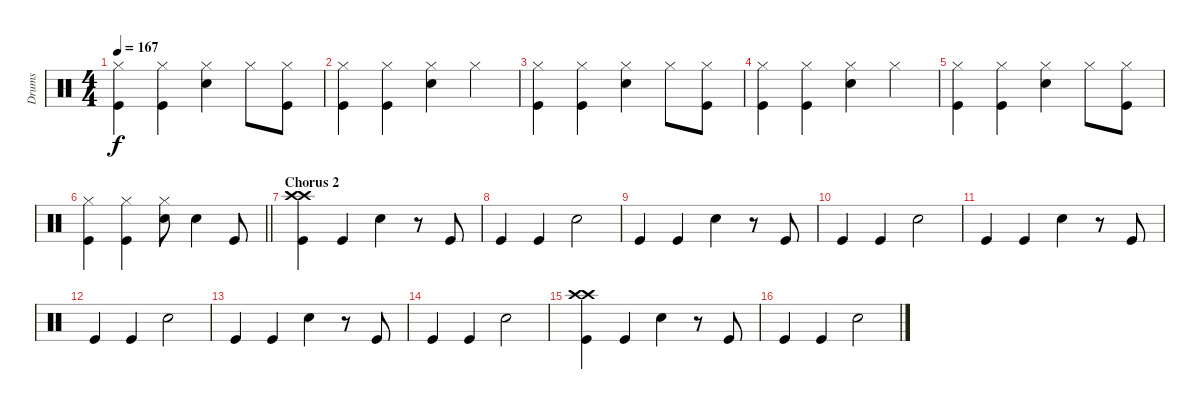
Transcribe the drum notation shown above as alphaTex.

\track ("Drums" "Drums") {instrument percussion}
\staff {score}
\articulation defaults
\ts (4 4)
\tempo 167
\clef neutral
\ks c
("Kick (hit)" "Hi-Hat (closed)").4{dy f} ("Kick (hit)" "Hi-Hat (closed)").4 ("Electric Snare (hit)" "Hi-Hat (closed)").4 "Hi-Hat (closed)".8 ("Kick (hit)" "Hi-Hat (closed)").8 |
("Kick (hit)" "Hi-Hat (closed)").4 ("Kick (hit)" "Hi-Hat (closed)").4 ("Electric Snare (hit)" "Hi-Hat (closed)").4 "Hi-Hat (closed)".4 |
("Kick (hit)" "Hi-Hat (closed)").4 ("Kick (hit)" "Hi-Hat (closed)").4 ("Electric Snare (hit)" "Hi-Hat (closed)").4 "Hi-Hat (closed)".8 ("Kick (hit)" "Hi-Hat (closed)").8 |
("Kick (hit)" "Hi-Hat (closed)").4 ("Kick (hit)" "Hi-Hat (closed)").4 ("Electric Snare (hit)" "Hi-Hat (closed)").4 "Hi-Hat (closed)".4 |
("Kick (hit)" "Hi-Hat (closed)").4 ("Kick (hit)" "Hi-Hat (closed)").4 ("Electric Snare (hit)" "Hi-Hat (closed)").4 "Hi-Hat (closed)".8 ("Kick (hit)" "Hi-Hat (closed)").8 |
\barLineRight lightlight
("Kick (hit)" "Hi-Hat (closed)").4 ("Kick (hit)" "Hi-Hat (closed)").4 ("Electric Snare (hit)" "Hi-Hat (closed)").8 "Electric Snare (hit)".4 "Kick (hit)".8 |
\section ("" "Chorus 2")
("Crash high (hit)" "Kick (hit)" "Crash high (hit)").4 "Kick (hit)".4 "Electric Snare (hit)".4 r.8 "Kick (hit)".8 |
"Kick (hit)".4 "Kick (hit)".4 "Electric Snare (hit)".2 |
"Kick (hit)".4 "Kick (hit)".4 "Electric Snare (hit)".4 r.8 "Kick (hit)".8 |
"Kick (hit)".4 "Kick (hit)".4 "Electric Snare (hit)".2 |
"Kick (hit)".4 "Kick (hit)".4 "Electric Snare (hit)".4 r.8 "Kick (hit)".8 |
"Kick (hit)".4 "Kick (hit)".4 "Electric Snare (hit)".2 |
"Kick (hit)".4 "Kick (hit)".4 "Electric Snare (hit)".4 r.8 "Kick (hit)".8 |
"Kick (hit)".4 "Kick (hit)".4 "Electric Snare (hit)".2 |
("Crash high (hit)" "Kick (hit)" "Crash high (hit)").4 "Kick (hit)".4 "Electric Snare (hit)".4 r.8 "Kick (hit)".8 |
"Kick (hit)".4 "Kick (hit)".4 "Electric Snare (hit)".2
